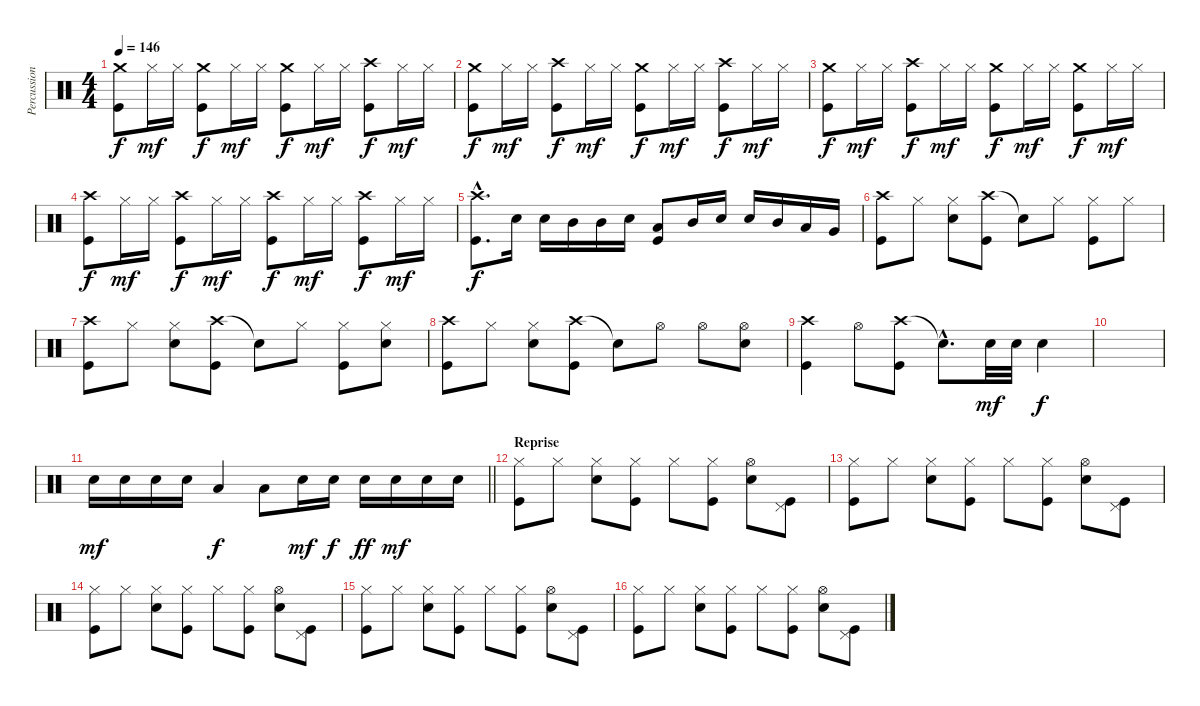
\track ("Percussion" "Percussion") {instrument percussion}
\staff {score}
\articulation defaults
\ts (4 4)
\tempo 146
\clef neutral
\ks c
("Crash medium (hit)" "Kick (hit)").8{dy f} "Hi-Hat (closed)".16{dy mf} "Hi-Hat (closed)".16 ("Crash medium (hit)" "Kick (hit)").8{dy f} "Hi-Hat (closed)".16{dy mf} "Hi-Hat (closed)".16 ("Crash medium (hit)" "Kick (hit)").8{dy f} "Hi-Hat (closed)".16{dy mf} "Hi-Hat (closed)".16 ("Crash high (hit)" "Kick (hit)").8{dy f} "Hi-Hat (closed)".16{dy mf} "Hi-Hat (closed)".16 |
("Crash medium (hit)" "Kick (hit)").8{dy f} "Hi-Hat (closed)".16{dy mf} "Hi-Hat (closed)".16 ("Crash high (hit)" "Kick (hit)").8{dy f} "Hi-Hat (closed)".16{dy mf} "Hi-Hat (closed)".16 ("Crash medium (hit)" "Kick (hit)").8{dy f} "Hi-Hat (closed)".16{dy mf} "Hi-Hat (closed)".16 ("Crash high (hit)" "Kick (hit)").8{dy f} "Hi-Hat (closed)".16{dy mf} "Hi-Hat (closed)".16 |
("Crash medium (hit)" "Kick (hit)").8{dy f} "Hi-Hat (closed)".16{dy mf} "Hi-Hat (closed)".16 ("Crash high (hit)" "Kick (hit)").8{dy f} "Hi-Hat (closed)".16{dy mf} "Hi-Hat (closed)".16 ("Crash medium (hit)" "Kick (hit)").8{dy f} "Hi-Hat (closed)".16{dy mf} "Hi-Hat (closed)".16 ("Crash medium (hit)" "Kick (hit)").8{dy f} "Hi-Hat (closed)".16{dy mf} "Hi-Hat (closed)".16 |
("Crash high (hit)" "Kick (hit)").8{dy f} "Hi-Hat (closed)".16{dy mf} "Hi-Hat (closed)".16 ("Crash high (hit)" "Kick (hit)").8{dy f} "Hi-Hat (closed)".16{dy mf} "Hi-Hat (closed)".16 ("Crash high (hit)" "Kick (hit)").8{dy f} "Hi-Hat (closed)".16{dy mf} "Hi-Hat (closed)".16 ("Crash high (hit)" "Kick (hit)").8{dy f} "Hi-Hat (closed)".16{dy mf} "Hi-Hat (closed)".16 |
("Crash high (hit)"{hac} "Kick (hit)"{hac}).8{d dy f} "Snare (hit) 2".16 "Snare (hit) 2".16 "Mid Tom (hit)".16 "Mid Tom (hit)".16 "Snare (hit) 2".16 ("Low Tom (hit)" "Kick (hit)").8 "Mid Tom (hit)".16 "Snare (hit) 2".16 "Snare (hit) 2".16 "Mid Tom (hit)".16 "Low Tom (hit)".16 "Very Low Tom (hit)".16 |
("Crash high (hit)" "Kick (hit)").8 "Hi-Hat (closed)".8 ("Hi-Hat (closed)" "Snare (hit) 2").8 ("Crash high (hit)" "Kick (hit)").8 "Snare (hit)"{t}.8 "Hi-Hat (closed)".8 ("Hi-Hat (closed)" "Kick (hit)").8 "Hi-Hat (closed)".8 |
("Crash high (hit)" "Kick (hit)").8 "Hi-Hat (closed)".8 ("Hi-Hat (closed)" "Snare (hit) 2").8 ("Crash high (hit)" "Kick (hit)").8 "Snare (hit)"{t}.8 "Hi-Hat (closed)".8 ("Hi-Hat (closed)" "Kick (hit)").8 ("Hi-Hat (closed)" "Snare (hit) 2").8 |
("Crash high (hit)" "Kick (hit)").8 "Hi-Hat (closed)".8 ("Hi-Hat (closed)" "Snare (hit) 2").8 ("Crash high (hit)" "Kick (hit)").8 "Snare (hit)"{t}.8 "Hi-Hat (open)".8 "Hi-Hat (open)".8 ("Hi-Hat (open)" "Snare (hit) 2").8 |
("Crash high (hit)" "Kick (hit)").4 "Hi-Hat (open)".8 ("Crash high (hit)" "Kick (hit)").8 "Snare (hit)"{hac t}.8{d} "Snare (hit) 2".32{dy mf} "Snare (hit) 2".32 "Snare (hit) 2".4{dy f} |
|
\barLineRight lightlight "Snare (hit) 2".16{dy mf} "Snare (hit) 2".16 "Snare (hit) 2".16 "Snare (hit) 2".16 "Low Tom (hit)".4{dy f} "Low Floor Tom (hit)".8 "Snare (hit) 2".16{dy mf} "Snare (hit) 2".16{dy f} "Snare (hit) 2".16{dy ff} "Snare (hit) 2".16{dy mf} "Snare (hit) 2".16 "Snare (hit) 2".16
|
\section ("" "Reprise")
("Hi-Hat (closed)" "Kick (hit)").8 "Hi-Hat (closed)".8 ("Hi-Hat (closed)" "Snare (hit) 2").8 ("Hi-Hat (closed)" "Kick (hit)").8 "Hi-Hat (closed)".8 ("Hi-Hat (closed)" "Kick (hit)").8 ("Hi-Hat (open)" "Snare (hit) 2").8 ("Pedal Hi-Hat (hit)" "Kick (hit)").8 |
("Hi-Hat (closed)" "Kick (hit)").8 "Hi-Hat (closed)".8 ("Hi-Hat (closed)" "Snare (hit) 2").8 ("Hi-Hat (closed)" "Kick (hit)").8 "Hi-Hat (closed)".8 ("Hi-Hat (closed)" "Kick (hit)").8 ("Hi-Hat (open)" "Snare (hit) 2").8 ("Pedal Hi-Hat (hit)" "Kick (hit)").8 |
("Hi-Hat (closed)" "Kick (hit)").8 "Hi-Hat (closed)".8 ("Hi-Hat (closed)" "Snare (hit) 2").8 ("Hi-Hat (closed)" "Kick (hit)").8 "Hi-Hat (closed)".8 ("Hi-Hat (closed)" "Kick (hit)").8 ("Hi-Hat (open)" "Snare (hit) 2").8 ("Pedal Hi-Hat (hit)" "Kick (hit)").8 |
("Hi-Hat (closed)" "Kick (hit)").8 "Hi-Hat (closed)".8 ("Hi-Hat (closed)" "Snare (hit) 2").8 ("Hi-Hat (closed)" "Kick (hit)").8 "Hi-Hat (closed)".8 ("Hi-Hat (closed)" "Kick (hit)").8 ("Hi-Hat (open)" "Snare (hit) 2").8 ("Pedal Hi-Hat (hit)" "Kick (hit)").8 |
("Hi-Hat (closed)" "Kick (hit)").8 "Hi-Hat (closed)".8 ("Hi-Hat (closed)" "Snare (hit) 2").8 ("Hi-Hat (closed)" "Kick (hit)").8 "Hi-Hat (closed)".8 ("Hi-Hat (closed)" "Kick (hit)").8 ("Hi-Hat (open)" "Snare (hit) 2").8 ("Pedal Hi-Hat (hit)" "Kick (hit)").8
